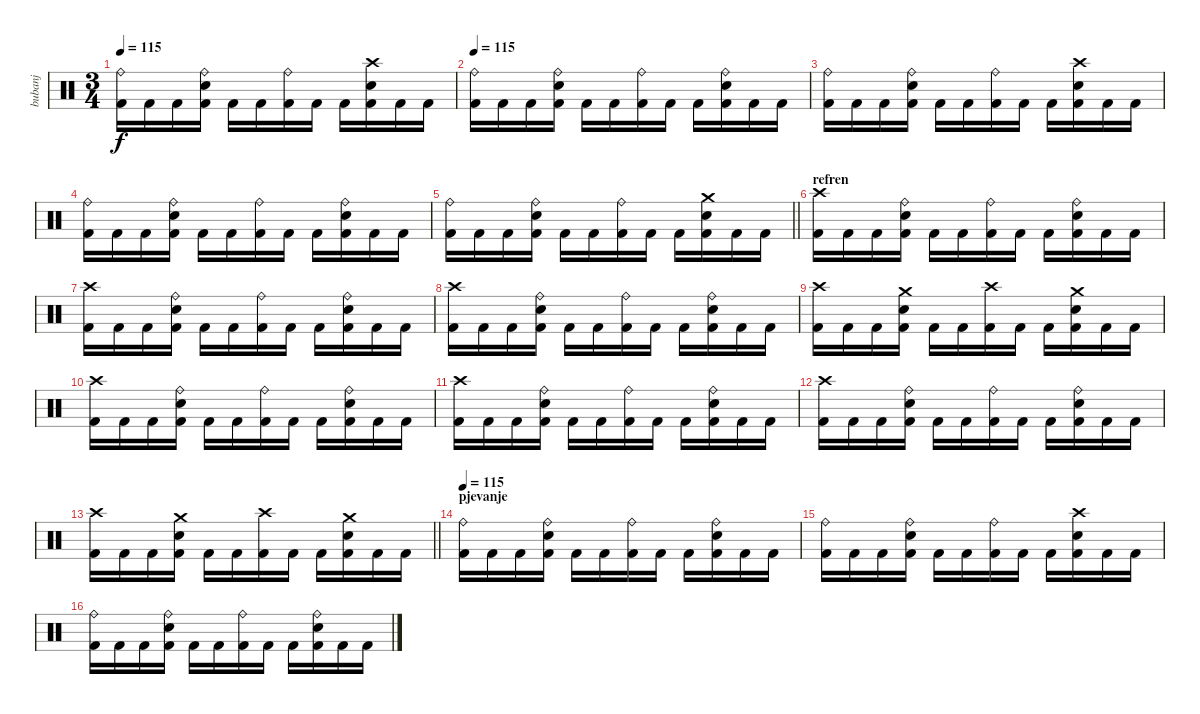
\track ("bubanj" "bubanj") {instrument percussion}
\staff {score}
\articulation defaults
\ts (3 4)
\tempo 115
\clef neutral
\ks c
("Ride (bell)" "Kick (hit) 2").16{dy f} "Kick (hit) 2".16 "Kick (hit) 2".16 ("Ride (bell)" "Electric Snare (hit)" "Kick (hit) 2").16 "Kick (hit) 2".16 "Kick (hit) 2".16 ("Ride (bell)" "Kick (hit) 2").16 "Kick (hit) 2".16 "Kick (hit) 2".16 ("Crash high (hit)" "Electric Snare (hit)" "Kick (hit) 2").16 "Kick (hit) 2".16 "Kick (hit) 2".16 |
\tempo 115
("Ride (bell)" "Kick (hit) 2").16 "Kick (hit) 2".16 "Kick (hit) 2".16 ("Ride (bell)" "Electric Snare (hit)" "Kick (hit) 2").16 "Kick (hit) 2".16 "Kick (hit) 2".16 ("Ride (bell)" "Kick (hit) 2").16 "Kick (hit) 2".16 "Kick (hit) 2".16 ("Ride (bell)" "Electric Snare (hit)" "Kick (hit) 2").16 "Kick (hit) 2".16 "Kick (hit) 2".16 |
("Ride (bell)" "Kick (hit) 2").16 "Kick (hit) 2".16 "Kick (hit) 2".16 ("Ride (bell)" "Electric Snare (hit)" "Kick (hit) 2").16 "Kick (hit) 2".16 "Kick (hit) 2".16 ("Ride (bell)" "Kick (hit) 2").16 "Kick (hit) 2".16 "Kick (hit) 2".16 ("Crash high (hit)" "Electric Snare (hit)" "Kick (hit) 2").16 "Kick (hit) 2".16 "Kick (hit) 2".16 |
("Ride (bell)" "Kick (hit) 2").16 "Kick (hit) 2".16 "Kick (hit) 2".16 ("Ride (bell)" "Electric Snare (hit)" "Kick (hit) 2").16 "Kick (hit) 2".16 "Kick (hit) 2".16 ("Ride (bell)" "Kick (hit) 2").16 "Kick (hit) 2".16 "Kick (hit) 2".16 ("Ride (bell)" "Electric Snare (hit)" "Kick (hit) 2").16 "Kick (hit) 2".16 "Kick (hit) 2".16 |
\barLineRight lightlight
("Ride (bell)" "Kick (hit) 2").16 "Kick (hit) 2".16 "Kick (hit) 2".16 ("Ride (bell)" "Electric Snare (hit)" "Kick (hit) 2").16 "Kick (hit) 2".16 "Kick (hit) 2".16 ("Ride (bell)" "Kick (hit) 2").16 "Kick (hit) 2".16 "Kick (hit) 2".16 ("Crash medium (hit)" "Electric Snare (hit)" "Kick (hit) 2").16 "Kick (hit) 2".16 "Kick (hit) 2".16 |
\section ("" "refren")
("Crash high (hit)" "Kick (hit) 2").16 "Kick (hit) 2".16 "Kick (hit) 2".16 ("Ride (bell)" "Electric Snare (hit)" "Kick (hit) 2").16 "Kick (hit) 2".16 "Kick (hit) 2".16 ("Ride (bell)" "Kick (hit) 2").16 "Kick (hit) 2".16 "Kick (hit) 2".16 ("Ride (bell)" "Electric Snare (hit)" "Kick (hit) 2").16 "Kick (hit) 2".16 "Kick (hit) 2".16 |
("Crash high (hit)" "Kick (hit) 2").16 "Kick (hit) 2".16 "Kick (hit) 2".16 ("Ride (bell)" "Electric Snare (hit)" "Kick (hit) 2").16 "Kick (hit) 2".16 "Kick (hit) 2".16 ("Ride (bell)" "Kick (hit) 2").16 "Kick (hit) 2".16 "Kick (hit) 2".16 ("Ride (bell)" "Electric Snare (hit)" "Kick (hit) 2").16 "Kick (hit) 2".16 "Kick (hit) 2".16 |
("Crash high (hit)" "Kick (hit) 2").16 "Kick (hit) 2".16 "Kick (hit) 2".16 ("Ride (bell)" "Electric Snare (hit)" "Kick (hit) 2").16 "Kick (hit) 2".16 "Kick (hit) 2".16 ("Ride (bell)" "Kick (hit) 2").16 "Kick (hit) 2".16 "Kick (hit) 2".16 ("Ride (bell)" "Electric Snare (hit)" "Kick (hit) 2").16 "Kick (hit) 2".16 "Kick (hit) 2".16 |
("Crash high (hit)" "Kick (hit) 2").16 "Kick (hit) 2".16 "Kick (hit) 2".16 ("Crash medium (hit)" "Electric Snare (hit)" "Kick (hit) 2").16 "Kick (hit) 2".16 "Kick (hit) 2".16 ("Crash high (hit)" "Kick (hit) 2").16 "Kick (hit) 2".16 "Kick (hit) 2".16 ("Crash medium (hit)" "Electric Snare (hit)" "Kick (hit) 2").16 "Kick (hit) 2".16 "Kick (hit) 2".16 |
("Crash high (hit)" "Kick (hit) 2").16 "Kick (hit) 2".16 "Kick (hit) 2".16 ("Ride (bell)" "Electric Snare (hit)" "Kick (hit) 2").16 "Kick (hit) 2".16 "Kick (hit) 2".16 ("Ride (bell)" "Kick (hit) 2").16 "Kick (hit) 2".16 "Kick (hit) 2".16 ("Ride (bell)" "Electric Snare (hit)" "Kick (hit) 2").16 "Kick (hit) 2".16 "Kick (hit) 2".16 |
("Crash high (hit)" "Kick (hit) 2").16 "Kick (hit) 2".16 "Kick (hit) 2".16 ("Ride (bell)" "Electric Snare (hit)" "Kick (hit) 2").16 "Kick (hit) 2".16 "Kick (hit) 2".16 ("Ride (bell)" "Kick (hit) 2").16 "Kick (hit) 2".16 "Kick (hit) 2".16 ("Ride (bell)" "Electric Snare (hit)" "Kick (hit) 2").16 "Kick (hit) 2".16 "Kick (hit) 2".16 |
("Crash high (hit)" "Kick (hit) 2").16 "Kick (hit) 2".16 "Kick (hit) 2".16 ("Ride (bell)" "Electric Snare (hit)" "Kick (hit) 2").16 "Kick (hit) 2".16 "Kick (hit) 2".16 ("Ride (bell)" "Kick (hit) 2").16 "Kick (hit) 2".16 "Kick (hit) 2".16 ("Ride (bell)" "Electric Snare (hit)" "Kick (hit) 2").16 "Kick (hit) 2".16 "Kick (hit) 2".16 |
\barLineRight lightlight
("Crash high (hit)" "Kick (hit) 2").16 "Kick (hit) 2".16 "Kick (hit) 2".16 ("Crash medium (hit)" "Electric Snare (hit)" "Kick (hit) 2").16 "Kick (hit) 2".16 "Kick (hit) 2".16 ("Crash high (hit)" "Kick (hit) 2").16 "Kick (hit) 2".16 "Kick (hit) 2".16 ("Crash medium (hit)" "Electric Snare (hit)" "Kick (hit) 2").16 "Kick (hit) 2".16 "Kick (hit) 2".16 |
\section ("" "pjevanje")
\tempo 115
("Ride (bell)" "Kick (hit) 2").16 "Kick (hit) 2".16 "Kick (hit) 2".16 ("Ride (bell)" "Electric Snare (hit)" "Kick (hit) 2").16 "Kick (hit) 2".16 "Kick (hit) 2".16 ("Ride (bell)" "Kick (hit) 2").16 "Kick (hit) 2".16 "Kick (hit) 2".16 ("Ride (bell)" "Electric Snare (hit)" "Kick (hit) 2").16 "Kick (hit) 2".16 "Kick (hit) 2".16 |
("Ride (bell)" "Kick (hit) 2").16 "Kick (hit) 2".16 "Kick (hit) 2".16 ("Ride (bell)" "Electric Snare (hit)" "Kick (hit) 2").16 "Kick (hit) 2".16 "Kick (hit) 2".16 ("Ride (bell)" "Kick (hit) 2").16 "Kick (hit) 2".16 "Kick (hit) 2".16 ("Crash high (hit)" "Electric Snare (hit)" "Kick (hit) 2").16 "Kick (hit) 2".16 "Kick (hit) 2".16 |
("Ride (bell)" "Kick (hit) 2").16 "Kick (hit) 2".16 "Kick (hit) 2".16 ("Ride (bell)" "Electric Snare (hit)" "Kick (hit) 2").16 "Kick (hit) 2".16 "Kick (hit) 2".16 ("Ride (bell)" "Kick (hit) 2").16 "Kick (hit) 2".16 "Kick (hit) 2".16 ("Ride (bell)" "Electric Snare (hit)" "Kick (hit) 2").16 "Kick (hit) 2".16 "Kick (hit) 2".16
